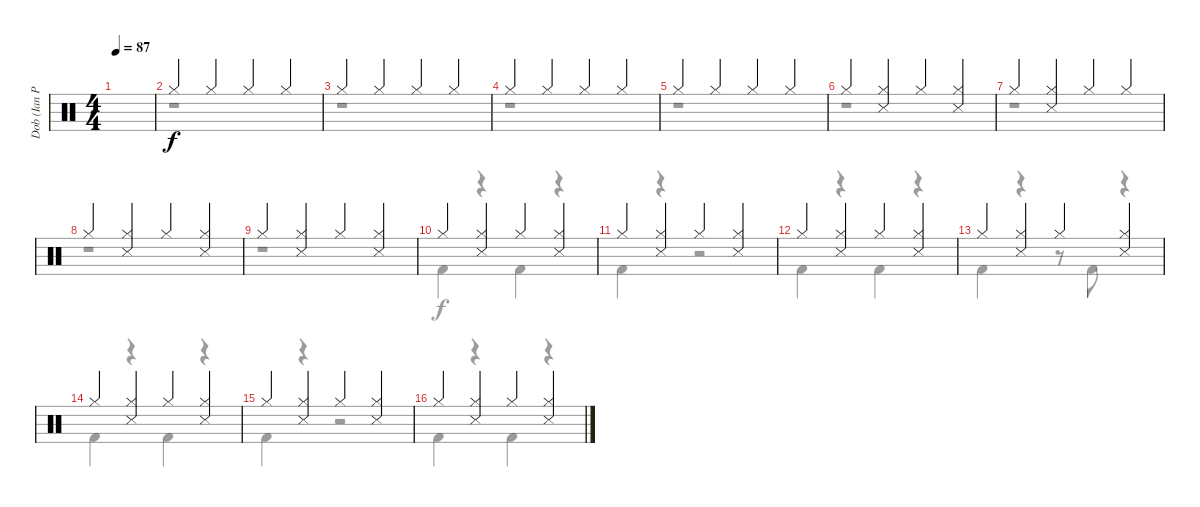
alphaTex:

\track ("Dob (Ian Paice)" "Dob (Ian P") {instrument percussion}
\staff {score}
\articulation defaults
\voice
\ts (4 4)
\tempo 87
\clef neutral
\ks c
|
"Hi-Hat (closed)".4 "Hi-Hat (closed)".4 "Hi-Hat (closed)".4 "Hi-Hat (closed)".4 |
"Hi-Hat (closed)".4 "Hi-Hat (closed)".4 "Hi-Hat (closed)".4 "Hi-Hat (closed)".4 |
"Hi-Hat (closed)".4 "Hi-Hat (closed)".4 "Hi-Hat (closed)".4 "Hi-Hat (closed)".4 |
"Hi-Hat (closed)".4 "Hi-Hat (closed)".4 "Hi-Hat (closed)".4 "Hi-Hat (closed)".4 |
"Hi-Hat (closed)".4 ("Hi-Hat (closed)" "Snare (side stick) 3").4 "Hi-Hat (closed)".4 ("Hi-Hat (closed)" "Snare (side stick) 3").4 |
"Hi-Hat (closed)".4 ("Hi-Hat (closed)" "Snare (side stick) 3").4 "Hi-Hat (closed)".4 "Hi-Hat (closed)".4 |
"Hi-Hat (closed)".4 ("Hi-Hat (closed)" "Snare (side stick) 3").4 "Hi-Hat (closed)".4 ("Hi-Hat (closed)" "Snare (side stick) 3").4 |
"Hi-Hat (closed)".4 ("Hi-Hat (closed)" "Snare (side stick) 3").4 "Hi-Hat (closed)".4 ("Hi-Hat (closed)" "Snare (side stick) 3").4 |
"Hi-Hat (closed)".4 ("Hi-Hat (closed)" "Snare (side stick) 3").4 "Hi-Hat (closed)".4 ("Hi-Hat (closed)" "Snare (side stick) 3").4 |
"Hi-Hat (closed)".4 ("Hi-Hat (closed)" "Snare (side stick) 3").4 "Hi-Hat (closed)".4 ("Hi-Hat (closed)" "Snare (side stick) 3").4 |
"Hi-Hat (closed)".4 ("Hi-Hat (closed)" "Snare (side stick) 3").4 "Hi-Hat (closed)".4 ("Hi-Hat (closed)" "Snare (side stick) 3").4 |
"Hi-Hat (closed)".4 ("Hi-Hat (closed)" "Snare (side stick) 3").4 "Hi-Hat (closed)".4 ("Hi-Hat (closed)" "Snare (side stick) 3").4 |
"Hi-Hat (closed)".4 ("Hi-Hat (closed)" "Snare (side stick) 3").4 "Hi-Hat (closed)".4 ("Hi-Hat (closed)" "Snare (side stick) 3").4 |
"Hi-Hat (closed)".4 ("Hi-Hat (closed)" "Snare (side stick) 3").4 "Hi-Hat (closed)".4 ("Hi-Hat (closed)" "Snare (side stick) 3").4 |
"Hi-Hat (closed)".4 ("Hi-Hat (closed)" "Snare (side stick) 3").4 "Hi-Hat (closed)".4 ("Hi-Hat (closed)" "Snare (side stick) 3").4
\voice
\clef neutral
\ottava regular
\simile none
\ks c
|
r.1 |
r.1 |
r.1 |
r.1 |
r.1 |
r.1 |
r.1 |
r.1 |
"Kick (hit) 2".4 r.4 "Kick (hit) 2".4 r.4 |
"Kick (hit) 2".4 r.4 r.2 |
"Kick (hit) 2".4 r.4 "Kick (hit) 2".4 r.4 |
"Kick (hit) 2".4 r.4 r.8 "Kick (hit) 2".8 r.4 |
"Kick (hit) 2".4 r.4 "Kick (hit) 2".4 r.4 |
"Kick (hit) 2".4 r.4 r.2 |
"Kick (hit) 2".4 r.4 "Kick (hit) 2".4 r.4
